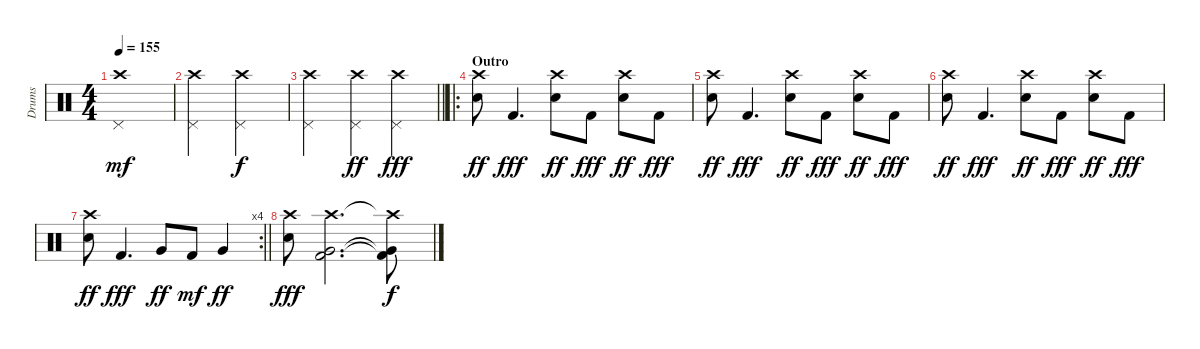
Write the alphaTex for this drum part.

\track ("Drums" "Drums") {instrument percussion}
\staff {score}
\articulation defaults
\ts (4 4)
\tempo 155
\clef neutral
\ks c
("Pedal Hi-Hat (hit)" "Crash high (hit)").1{dy mf} |
("Pedal Hi-Hat (hit)" "Crash high (hit)").2 ("Pedal Hi-Hat (hit)" "Crash high (hit)").2{dy f} |
\barLineRight lightlight
("Pedal Hi-Hat (hit)" "Crash high (hit)").2 ("Pedal Hi-Hat (hit)" "Crash high (hit)").4{dy ff} ("Pedal Hi-Hat (hit)" "Crash high (hit)").4{dy fff} |
\ro
\section ("" "Outro")
("Crash high (hit)" "Electric Snare (hit)").8{dy ff} "Kick (hit) 2".4{d dy fff} ("Crash high (hit)" "Electric Snare (hit)").8{dy ff} "Kick (hit) 2".8{dy fff} ("Crash high (hit)" "Electric Snare (hit)").8{dy ff} "Kick (hit) 2".8{dy fff} |
("Crash high (hit)" "Electric Snare (hit)").8{dy ff} "Kick (hit) 2".4{d dy fff} ("Crash high (hit)" "Electric Snare (hit)").8{dy ff} "Kick (hit) 2".8{dy fff} ("Crash high (hit)" "Electric Snare (hit)").8{dy ff} "Kick (hit) 2".8{dy fff} |
("Crash high (hit)" "Electric Snare (hit)").8{dy ff} "Kick (hit) 2".4{d dy fff} ("Crash high (hit)" "Electric Snare (hit)").8{dy ff} "Kick (hit) 2".8{dy fff} ("Crash high (hit)" "Electric Snare (hit)").8{dy ff} "Kick (hit) 2".8{dy fff} |
\rc 4
\barLineRight lightlight
("Crash high (hit)" "Electric Snare (hit)").8{dy ff} "Kick (hit) 2".4{d dy fff} "Very Low Tom (hit)".8{dy ff} "Kick (hit) 2".8{dy mf} "Very Low Tom (hit)".4{dy ff} |
("Crash high (hit)" "Electric Snare (hit)").8{dy fff} ("Crash high (hit)" "Very Low Tom (hit)" "Kick (hit) 2").2{d} ("Crash high (hit)"{t} "Very Low Tom (hit)"{t} "Kick (hit) 2"{t}).8{dy f}
